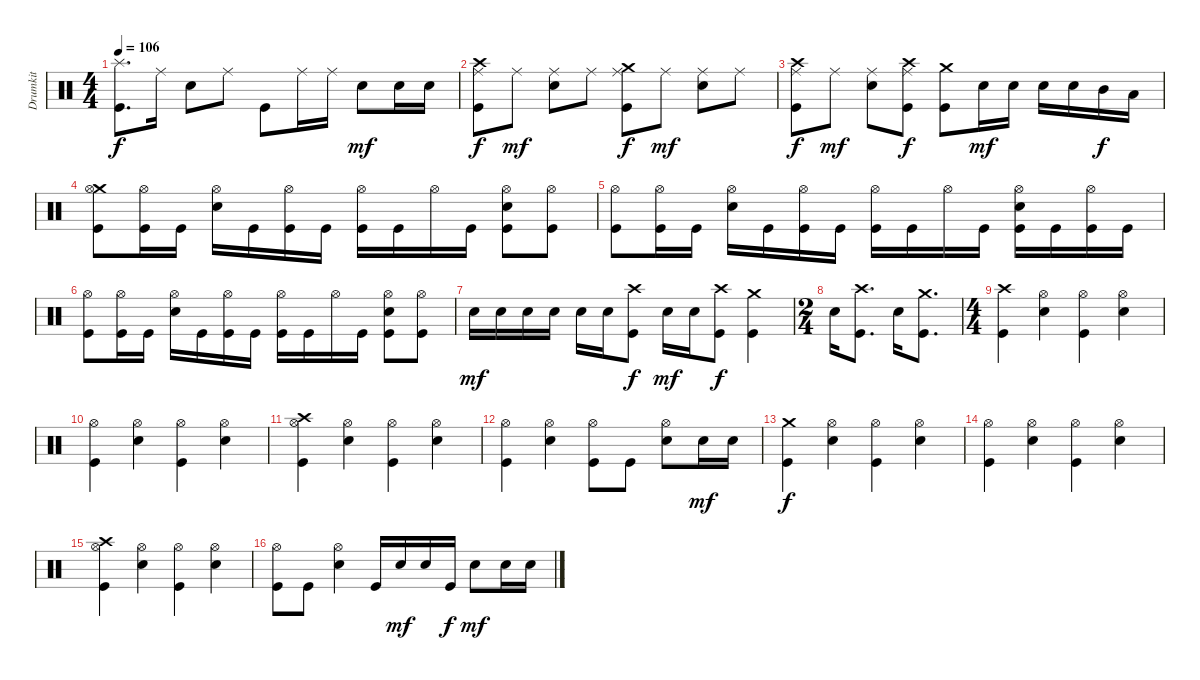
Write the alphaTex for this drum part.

\track ("Drumkit" "Drumkit") {instrument percussion}
\staff {score}
\articulation defaults
\ts (4 4)
\tempo 106
\clef neutral
\ks c
("Kick (hit)" "Splash (hit)").8{d dy f} "Ride (middle)".16 "Snare (hit) 2".8 "Ride (middle)".8 "Kick (hit)".8 "Ride (middle)".16 "Ride (middle)".16 "Snare (hit) 2".8{dy mf} "Snare (hit) 2".16 "Snare (hit) 2".16 |
("Kick (hit)" "Crash high (hit)" "Ride (middle)").8{dy f} "Ride (middle)".8{dy mf} ("Ride (middle)" "Snare (hit) 2").8 "Ride (middle)".8 ("Kick (hit)" "Crash medium (hit)" "Ride (middle)").8{dy f} "Ride (middle)".8{dy mf} ("Ride (middle)" "Snare (hit) 2").8 "Ride (middle)".8 |
("Kick (hit)" "Crash high (hit)" "Ride (middle)").8{dy f} "Ride (middle)".8{dy mf} ("Ride (middle)" "Snare (hit) 2").8 ("Kick (hit)" "Crash high (hit)" "Ride (middle)").8{dy f} ("Kick (hit)" "Crash medium (hit)").8 "Snare (hit) 2".16{dy mf} "Snare (hit) 2".16 "Snare (hit) 2".16 "Snare (hit) 2".16 "Mid Tom (hit)".16{dy f} "Low Tom (hit)".16 |
("Kick (hit)" "Crash medium (hit)" "Hi-Hat (open)").8 ("Kick (hit)" "Hi-Hat (open)").16 "Kick (hit)".16 ("Hi-Hat (open)" "Snare (hit) 2").16 "Kick (hit)".16 ("Kick (hit)" "Hi-Hat (open)").16 "Kick (hit)".16 ("Kick (hit)" "Hi-Hat (open)").16 "Kick (hit)".16 "Hi-Hat (open)".16 "Kick (hit)".16 ("Kick (hit)" "Hi-Hat (open)" "Snare (hit) 2").8 ("Kick (hit)" "Hi-Hat (open)").8 |
("Kick (hit)" "Hi-Hat (open)").8 ("Kick (hit)" "Hi-Hat (open)").16 "Kick (hit)".16 ("Hi-Hat (open)" "Snare (hit) 2").16 "Kick (hit)".16 ("Kick (hit)" "Hi-Hat (open)").16 "Kick (hit)".16 ("Kick (hit)" "Hi-Hat (open)").16 "Kick (hit)".16 "Hi-Hat (open)".16 "Kick (hit)".16 ("Kick (hit)" "Hi-Hat (open)" "Snare (hit) 2").16 "Kick (hit)".16 ("Kick (hit)" "Hi-Hat (open)").16 "Kick (hit)".16 |
("Kick (hit)" "Hi-Hat (open)").8 ("Kick (hit)" "Hi-Hat (open)").16 "Kick (hit)".16 ("Hi-Hat (open)" "Snare (hit) 2").16 "Kick (hit)".16 ("Kick (hit)" "Hi-Hat (open)").16 "Kick (hit)".16 ("Kick (hit)" "Hi-Hat (open)").16 "Kick (hit)".16 "Hi-Hat (open)".16 "Kick (hit)".16 ("Kick (hit)" "Hi-Hat (open)" "Snare (hit) 2").8 ("Kick (hit)" "Hi-Hat (open)").8 |
"Snare (hit) 2".16{dy mf} "Snare (hit) 2".16 "Snare (hit) 2".16 "Snare (hit) 2".16 "Snare (hit) 2".16 "Snare (hit) 2".16 ("Kick (hit)" "Crash high (hit)").8{dy f} "Snare (hit) 2".16{dy mf} "Snare (hit) 2".16 ("Kick (hit)" "Crash high (hit)").8{dy f} ("Kick (hit)" "Crash medium (hit)").4 |
\ts (2 4)
"Snare (hit) 2".16 ("Kick (hit)" "Crash high (hit)").8{d} "Snare (hit) 2".16 ("Kick (hit)" "Crash medium (hit)").8{d} |
\ts (4 4)
("Kick (hit)" "Crash high (hit)").4 ("Hi-Hat (open)" "Snare (hit) 2").4 ("Kick (hit)" "Hi-Hat (open)").4 ("Hi-Hat (open)" "Snare (hit) 2").4 |
("Kick (hit)" "Hi-Hat (open)").4 ("Hi-Hat (open)" "Snare (hit) 2").4 ("Kick (hit)" "Hi-Hat (open)").4 ("Hi-Hat (open)" "Snare (hit) 2").4 |
("Kick (hit)" "Crash high (hit)" "Hi-Hat (open)").4 ("Hi-Hat (open)" "Snare (hit) 2").4 ("Kick (hit)" "Hi-Hat (open)").4 ("Hi-Hat (open)" "Snare (hit) 2").4 |
("Kick (hit)" "Hi-Hat (open)").4 ("Hi-Hat (open)" "Snare (hit) 2").4 ("Kick (hit)" "Hi-Hat (open)").8 "Kick (hit)".8 ("Hi-Hat (open)" "Snare (hit) 2").8 "Snare (hit) 2".16{dy mf} "Snare (hit) 2".16 |
("Kick (hit)" "Crash medium (hit)").4{dy f} ("Hi-Hat (open)" "Snare (hit) 2").4 ("Kick (hit)" "Hi-Hat (open)").4 ("Hi-Hat (open)" "Snare (hit) 2").4 |
("Kick (hit)" "Hi-Hat (open)").4 ("Hi-Hat (open)" "Snare (hit) 2").4 ("Kick (hit)" "Hi-Hat (open)").4 ("Hi-Hat (open)" "Snare (hit) 2").4 |
("Kick (hit)" "Crash high (hit)" "Hi-Hat (open)").4 ("Hi-Hat (open)" "Snare (hit) 2").4 ("Kick (hit)" "Hi-Hat (open)").4 ("Hi-Hat (open)" "Snare (hit) 2").4 |
("Kick (hit)" "Hi-Hat (open)").8 "Kick (hit)".8 ("Hi-Hat (open)" "Snare (hit) 2").4 "Kick (hit)".16 "Snare (hit) 2".16{dy mf} "Snare (hit) 2".16 "Kick (hit)".16{dy f} "Snare (hit) 2".8{dy mf} "Snare (hit) 2".16 "Snare (hit) 2".16
